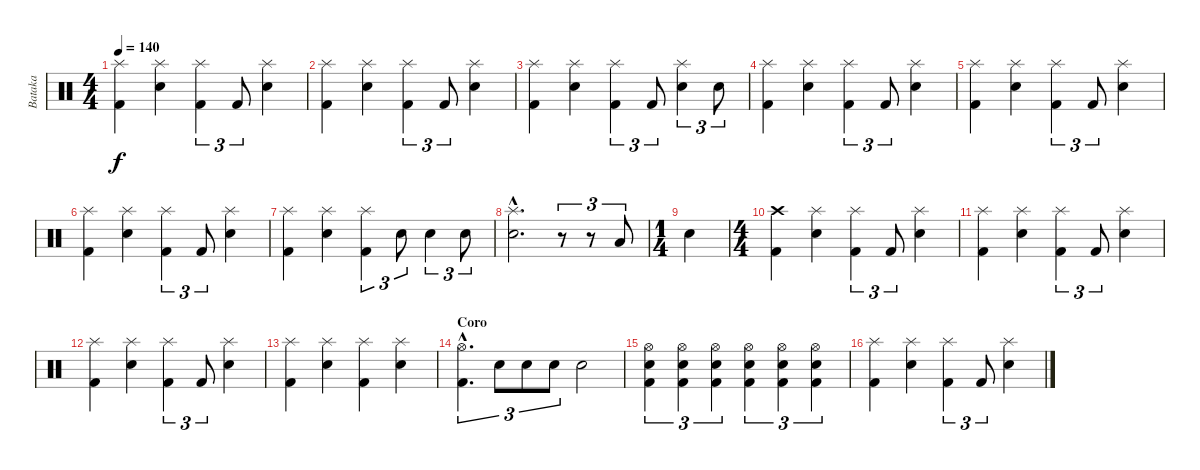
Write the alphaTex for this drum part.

\track ("Bataka" "Bataka") {instrument percussion}
\staff {score}
\articulation defaults
\ts (4 4)
\tempo 140
\clef neutral
\ks c
("Splash (hit)" "Kick (hit) 2").4{dy f} ("Splash (hit)" "Electric Snare (hit)").4 ("Splash (hit)" "Kick (hit) 2").4{tu (3 2)} "Kick (hit) 2".8{tu (3 2)} ("Splash (hit)" "Electric Snare (hit)").4 |
("Splash (hit)" "Kick (hit) 2").4 ("Splash (hit)" "Electric Snare (hit)").4 ("Splash (hit)" "Kick (hit) 2").4{tu (3 2)} "Kick (hit) 2".8{tu (3 2)} ("Splash (hit)" "Electric Snare (hit)").4 |
("Splash (hit)" "Kick (hit) 2").4 ("Splash (hit)" "Electric Snare (hit)").4 ("Splash (hit)" "Kick (hit) 2").4{tu (3 2)} "Kick (hit) 2".8{tu (3 2)} ("Splash (hit)" "Electric Snare (hit)").4{tu (3 2)} "Electric Snare (hit)".8{tu (3 2)} |
("Splash (hit)" "Kick (hit) 2").4 ("Splash (hit)" "Electric Snare (hit)").4 ("Splash (hit)" "Kick (hit) 2").4{tu (3 2)} "Kick (hit) 2".8{tu (3 2)} ("Splash (hit)" "Electric Snare (hit)").4 |
("Splash (hit)" "Kick (hit) 2").4 ("Splash (hit)" "Electric Snare (hit)").4 ("Splash (hit)" "Kick (hit) 2").4{tu (3 2)} "Kick (hit) 2".8{tu (3 2)} ("Splash (hit)" "Electric Snare (hit)").4 |
("Splash (hit)" "Kick (hit) 2").4 ("Splash (hit)" "Electric Snare (hit)").4 ("Splash (hit)" "Kick (hit) 2").4{tu (3 2)} "Kick (hit) 2".8{tu (3 2)} ("Splash (hit)" "Electric Snare (hit)").4 |
("Splash (hit)" "Kick (hit) 2").4 ("Splash (hit)" "Electric Snare (hit)").4 ("Splash (hit)" "Kick (hit) 2").4{tu (3 2)} "Electric Snare (hit)".8{tu (3 2)} "Electric Snare (hit)".4{tu (3 2)} "Electric Snare (hit)".8{tu (3 2)} |
("Splash (hit)"{hac} "Electric Snare (hit)"{hac}).2{d} r.8{tu (3 2)} r.8{tu (3 2)} "Low Tom (hit)".8{tu (3 2)} |
\ts (1 4)
"Electric Snare (hit)".4 |
\ts (4 4)
("Crash high (hit)" "Kick (hit) 2").4 ("Splash (hit)" "Electric Snare (hit)").4 ("Splash (hit)" "Kick (hit) 2").4{tu (3 2)} "Kick (hit) 2".8{tu (3 2)} ("Splash (hit)" "Electric Snare (hit)").4 |
("Splash (hit)" "Kick (hit) 2").4 ("Splash (hit)" "Electric Snare (hit)").4 ("Splash (hit)" "Kick (hit) 2").4{tu (3 2)} "Kick (hit) 2".8{tu (3 2)} ("Splash (hit)" "Electric Snare (hit)").4 |
("Splash (hit)" "Kick (hit) 2").4 ("Splash (hit)" "Electric Snare (hit)").4 ("Splash (hit)" "Kick (hit) 2").4{tu (3 2)} "Kick (hit) 2".8{tu (3 2)} ("Splash (hit)" "Electric Snare (hit)").4 |
("Splash (hit)" "Kick (hit) 2").4 ("Splash (hit)" "Electric Snare (hit)").4 ("Splash (hit)" "Kick (hit) 2").4 ("Splash (hit)" "Electric Snare (hit)").4 |
\section ("" "Coro")
("Hi-Hat (open)"{hac} "Kick (hit) 2"{hac}).4{d tu (3 2)} "Electric Snare (hit)".8{tu (3 2)} "Electric Snare (hit)".8{tu (3 2)} "Electric Snare (hit)".8{tu (3 2)} "Electric Snare (hit)".2 |
("Hi-Hat (open)" "Electric Snare (hit)" "Kick (hit) 2").4{tu (3 2)} ("Hi-Hat (open)" "Electric Snare (hit)" "Kick (hit) 2").4{tu (3 2)} ("Hi-Hat (open)" "Electric Snare (hit)" "Kick (hit) 2").4{tu (3 2)} ("Hi-Hat (open)" "Electric Snare (hit)" "Kick (hit) 2").4{tu (3 2)} ("Hi-Hat (open)" "Electric Snare (hit)" "Kick (hit) 2").4{tu (3 2)} ("Hi-Hat (open)" "Electric Snare (hit)" "Kick (hit) 2").4{tu (3 2)} |
("Splash (hit)" "Kick (hit) 2").4 ("Splash (hit)" "Electric Snare (hit)").4 ("Splash (hit)" "Kick (hit) 2").4{tu (3 2)} "Kick (hit) 2".8{tu (3 2)} ("Splash (hit)" "Electric Snare (hit)").4
